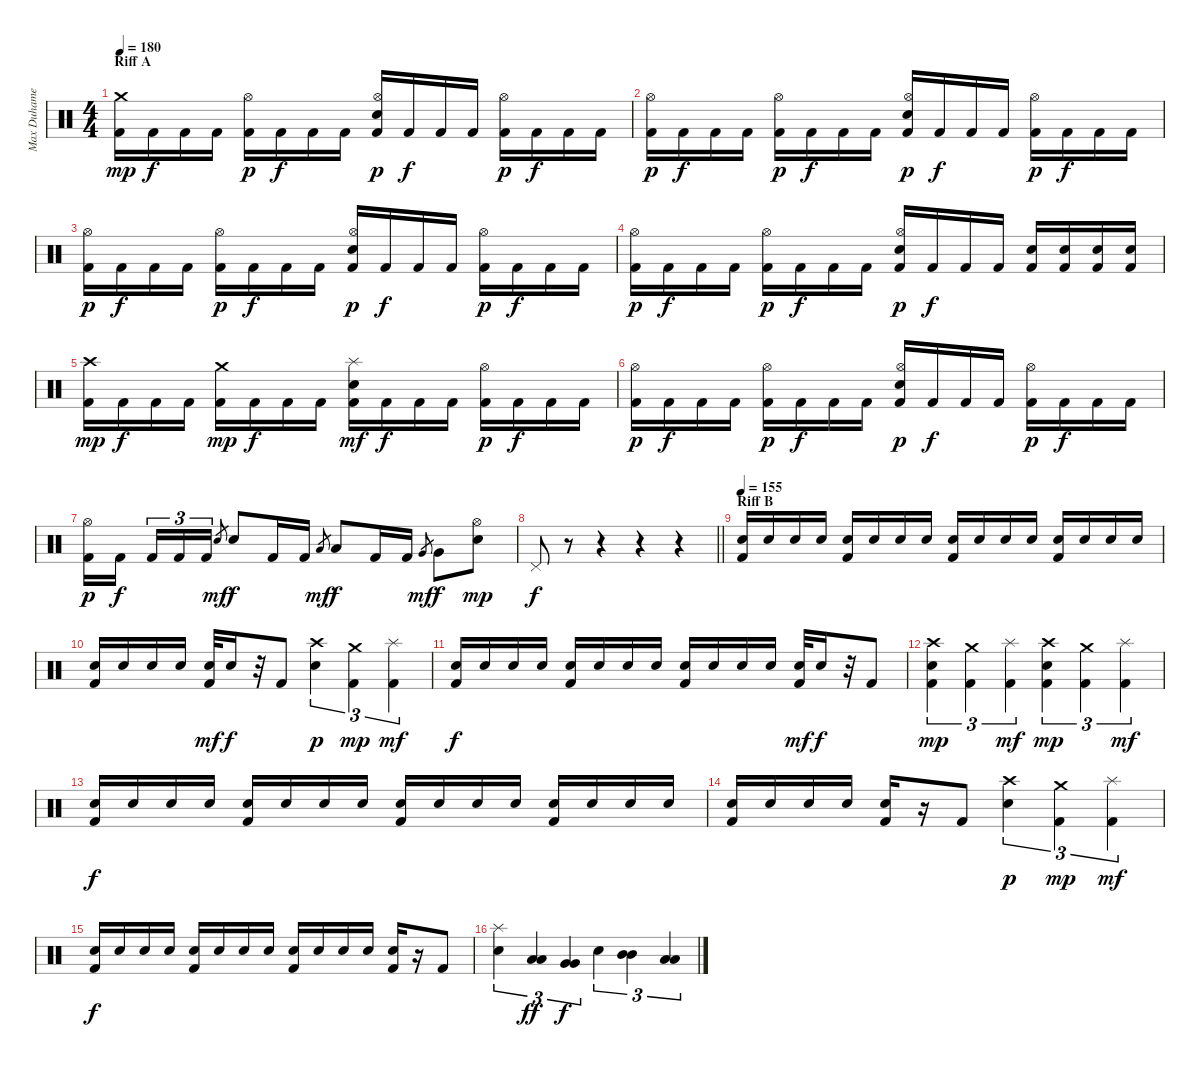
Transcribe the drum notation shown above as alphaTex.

\track ("Max Duhamel" "Max Duhame") {instrument percussion}
\staff {score}
\articulation defaults
\ts (4 4)
\section ("" "Riff A")
\tempo 180
\clef neutral
\ks c
("Crash medium (hit)" "Kick (hit) 2").16{dy mp} "Kick (hit) 2".16{dy f} "Kick (hit) 2".16 "Kick (hit) 2".16 ("Hi-Hat (open)" "Kick (hit) 2").16{dy p} "Kick (hit) 2".16{dy f} "Kick (hit) 2".16 "Kick (hit) 2".16 ("Hi-Hat (open)" "Electric Snare (hit)" "Kick (hit) 2").16{dy p} "Kick (hit) 2".16{dy f} "Kick (hit) 2".16 "Kick (hit) 2".16 ("Hi-Hat (open)" "Kick (hit) 2").16{dy p} "Kick (hit) 2".16{dy f} "Kick (hit) 2".16 "Kick (hit) 2".16 |
("Hi-Hat (open)" "Kick (hit) 2").16{dy p} "Kick (hit) 2".16{dy f} "Kick (hit) 2".16 "Kick (hit) 2".16 ("Hi-Hat (open)" "Kick (hit) 2").16{dy p} "Kick (hit) 2".16{dy f} "Kick (hit) 2".16 "Kick (hit) 2".16 ("Hi-Hat (open)" "Electric Snare (hit)" "Kick (hit) 2").16{dy p} "Kick (hit) 2".16{dy f} "Kick (hit) 2".16 "Kick (hit) 2".16 ("Hi-Hat (open)" "Kick (hit) 2").16{dy p} "Kick (hit) 2".16{dy f} "Kick (hit) 2".16 "Kick (hit) 2".16 |
("Hi-Hat (open)" "Kick (hit) 2").16{dy p} "Kick (hit) 2".16{dy f} "Kick (hit) 2".16 "Kick (hit) 2".16 ("Hi-Hat (open)" "Kick (hit) 2").16{dy p} "Kick (hit) 2".16{dy f} "Kick (hit) 2".16 "Kick (hit) 2".16 ("Hi-Hat (open)" "Electric Snare (hit)" "Kick (hit) 2").16{dy p} "Kick (hit) 2".16{dy f} "Kick (hit) 2".16 "Kick (hit) 2".16 ("Hi-Hat (open)" "Kick (hit) 2").16{dy p} "Kick (hit) 2".16{dy f} "Kick (hit) 2".16 "Kick (hit) 2".16 |
("Hi-Hat (open)" "Kick (hit) 2").16{dy p} "Kick (hit) 2".16{dy f} "Kick (hit) 2".16 "Kick (hit) 2".16 ("Hi-Hat (open)" "Kick (hit) 2").16{dy p} "Kick (hit) 2".16{dy f} "Kick (hit) 2".16 "Kick (hit) 2".16 ("Hi-Hat (open)" "Electric Snare (hit)" "Kick (hit) 2").16{dy p} "Kick (hit) 2".16{dy f} "Kick (hit) 2".16 "Kick (hit) 2".16 ("Electric Snare (hit)" "Kick (hit) 2").16 ("Electric Snare (hit)" "Kick (hit) 2").16 ("Electric Snare (hit)" "Kick (hit) 2").16 ("Electric Snare (hit)" "Kick (hit) 2").16 |
("Crash high (hit)" "Kick (hit) 2").16{dy mp} "Kick (hit) 2".16{dy f} "Kick (hit) 2".16 "Kick (hit) 2".16 ("Crash medium (hit)" "Kick (hit) 2").16{dy mp} "Kick (hit) 2".16{dy f} "Kick (hit) 2".16 "Kick (hit) 2".16 ("Splash (hit)" "Electric Snare (hit)" "Kick (hit) 2").16{dy mf} "Kick (hit) 2".16{dy f} "Kick (hit) 2".16 "Kick (hit) 2".16 ("Hi-Hat (open)" "Kick (hit) 2").16{dy p} "Kick (hit) 2".16{dy f} "Kick (hit) 2".16 "Kick (hit) 2".16 |
("Hi-Hat (open)" "Kick (hit) 2").16{dy p} "Kick (hit) 2".16{dy f} "Kick (hit) 2".16 "Kick (hit) 2".16 ("Hi-Hat (open)" "Kick (hit) 2").16{dy p} "Kick (hit) 2".16{dy f} "Kick (hit) 2".16 "Kick (hit) 2".16 ("Hi-Hat (open)" "Electric Snare (hit)" "Kick (hit) 2").16{dy p} "Kick (hit) 2".16{dy f} "Kick (hit) 2".16 "Kick (hit) 2".16 ("Hi-Hat (open)" "Kick (hit) 2").16{dy p} "Kick (hit) 2".16{dy f} "Kick (hit) 2".16 "Kick (hit) 2".16 |
("Hi-Hat (open)" "Kick (hit) 2").16{dy p} "Kick (hit) 2".16{dy f beam splitsecondary} "Kick (hit) 2".16{tu (3 2)} "Kick (hit) 2".16{tu (3 2)} "Kick (hit) 2".16{tu (3 2)} "Electric Snare (hit)".8{gr dy mf} "Electric Snare (hit)".8{dy f} "Kick (hit) 2".16 "Kick (hit) 2".16 "Low Tom (hit)".8{gr dy mf} "Low Tom (hit)".8{dy f} "Kick (hit) 2".16 "Kick (hit) 2".16 "Very Low Tom (hit)".8{gr dy mf} "Very Low Tom (hit)".8{dy f} ("Hi-Hat (open)" "Electric Snare (hit)").8{dy mp} |
\barLineRight lightlight "Pedal Hi-Hat (hit)".8{dy f}
r.8 r.4 r.4 r.4 |
\section ("" "Riff B")
\tempo 155
("Electric Snare (hit)" "Kick (hit) 2").16 "Electric Snare (hit)".16 "Electric Snare (hit)".16 "Electric Snare (hit)".16 ("Electric Snare (hit)" "Kick (hit) 2").16 "Electric Snare (hit)".16 "Electric Snare (hit)".16 "Electric Snare (hit)".16 ("Electric Snare (hit)" "Kick (hit) 2").16 "Electric Snare (hit)".16 "Electric Snare (hit)".16 "Electric Snare (hit)".16 ("Electric Snare (hit)" "Kick (hit) 2").16 "Electric Snare (hit)".16 "Electric Snare (hit)".16 "Electric Snare (hit)".16 |
("Electric Snare (hit)" "Kick (hit) 2").16 "Electric Snare (hit)".16 "Electric Snare (hit)".16 "Electric Snare (hit)".16 ("Electric Snare (hit)" "Kick (hit) 2").32{dy mf} "Electric Snare (hit)".16{dy f} r.32 "Kick (hit) 2".8 ("Crash high (hit)" "Electric Snare (hit)").4{tu (3 2) dy p} ("Crash medium (hit)" "Kick (hit) 2").4{tu (3 2) dy mp} ("Splash (hit)" "Kick (hit) 2").4{tu (3 2) dy mf} |
("Electric Snare (hit)" "Kick (hit) 2").16{dy f} "Electric Snare (hit)".16 "Electric Snare (hit)".16 "Electric Snare (hit)".16 ("Electric Snare (hit)" "Kick (hit) 2").16 "Electric Snare (hit)".16 "Electric Snare (hit)".16 "Electric Snare (hit)".16 ("Electric Snare (hit)" "Kick (hit) 2").16 "Electric Snare (hit)".16 "Electric Snare (hit)".16 "Electric Snare (hit)".16 ("Electric Snare (hit)" "Kick (hit) 2").32{dy mf} "Electric Snare (hit)".16{dy f} r.32 "Kick (hit) 2".8 |
("Crash high (hit)" "Electric Snare (hit)" "Kick (hit) 2").4{tu (3 2) dy mp} ("Crash medium (hit)" "Kick (hit) 2").4{tu (3 2)} ("Splash (hit)" "Kick (hit) 2").4{tu (3 2) dy mf} ("Crash high (hit)" "Electric Snare (hit)" "Kick (hit) 2").4{tu (3 2) dy mp} ("Crash medium (hit)" "Kick (hit) 2").4{tu (3 2)} ("Splash (hit)" "Kick (hit) 2").4{tu (3 2) dy mf} |
("Electric Snare (hit)" "Kick (hit) 2").16{dy f} "Electric Snare (hit)".16 "Electric Snare (hit)".16 "Electric Snare (hit)".16 ("Electric Snare (hit)" "Kick (hit) 2").16 "Electric Snare (hit)".16 "Electric Snare (hit)".16 "Electric Snare (hit)".16 ("Electric Snare (hit)" "Kick (hit) 2").16 "Electric Snare (hit)".16 "Electric Snare (hit)".16 "Electric Snare (hit)".16 ("Electric Snare (hit)" "Kick (hit) 2").16 "Electric Snare (hit)".16 "Electric Snare (hit)".16 "Electric Snare (hit)".16 |
("Electric Snare (hit)" "Kick (hit) 2").16 "Electric Snare (hit)".16 "Electric Snare (hit)".16 "Electric Snare (hit)".16 ("Electric Snare (hit)" "Kick (hit) 2").16 r.16 "Kick (hit) 2".8 ("Crash high (hit)" "Electric Snare (hit)").4{tu (3 2) dy p} ("Crash medium (hit)" "Kick (hit) 2").4{tu (3 2) dy mp} ("Splash (hit)" "Kick (hit) 2").4{tu (3 2) dy mf} |
("Electric Snare (hit)" "Kick (hit) 2").16{dy f} "Electric Snare (hit)".16 "Electric Snare (hit)".16 "Electric Snare (hit)".16 ("Electric Snare (hit)" "Kick (hit) 2").16 "Electric Snare (hit)".16 "Electric Snare (hit)".16 "Electric Snare (hit)".16 ("Electric Snare (hit)" "Kick (hit) 2").16 "Electric Snare (hit)".16 "Electric Snare (hit)".16 "Electric Snare (hit)".16 ("Electric Snare (hit)" "Kick (hit) 2").16 r.16 "Kick (hit) 2".8 |
("Splash (hit)" "Electric Snare (hit)").4{tu (3 2)} ("Low Tom (hit)" "Low Tom (hit)").4{tu (3 2) dy ff} ("Very Low Tom (hit)" "Very Low Tom (hit)").4{tu (3 2) dy f} "Electric Snare (hit)".4{tu (3 2)} ("Mid Tom (hit)" "Mid Tom (hit)").4{tu (3 2)} ("Low Tom (hit)" "Low Tom (hit)").4{tu (3 2)}
